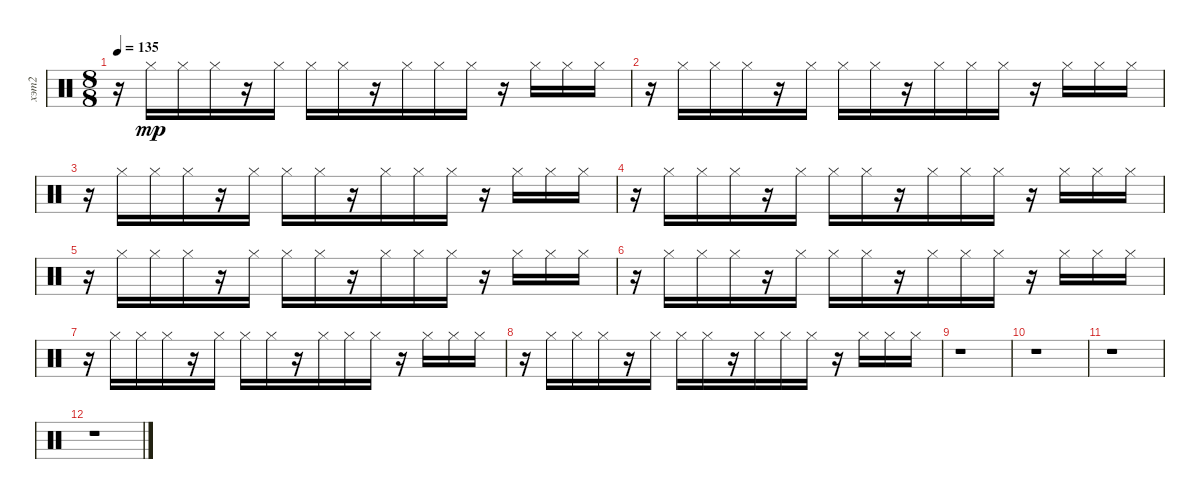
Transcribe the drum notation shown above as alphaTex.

\track ("хэт2" "хэт2") {instrument percussion}
\staff {score}
\articulation defaults
\ts (8 8)
\tempo 135
\clef neutral
\ks c
r.16{dy mp} "Hi-Hat (closed)".16 "Hi-Hat (closed)".16 "Hi-Hat (closed)".16 r.16 "Hi-Hat (closed)".16 "Hi-Hat (closed)".16 "Hi-Hat (closed)".16 r.16 "Hi-Hat (closed)".16 "Hi-Hat (closed)".16 "Hi-Hat (closed)".16 r.16 "Hi-Hat (closed)".16 "Hi-Hat (closed)".16 "Hi-Hat (closed)".16 |
r.16 "Hi-Hat (closed)".16 "Hi-Hat (closed)".16 "Hi-Hat (closed)".16 r.16 "Hi-Hat (closed)".16 "Hi-Hat (closed)".16 "Hi-Hat (closed)".16 r.16 "Hi-Hat (closed)".16 "Hi-Hat (closed)".16 "Hi-Hat (closed)".16 r.16 "Hi-Hat (closed)".16 "Hi-Hat (closed)".16 "Hi-Hat (closed)".16 |
r.16 "Hi-Hat (closed)".16 "Hi-Hat (closed)".16 "Hi-Hat (closed)".16 r.16 "Hi-Hat (closed)".16 "Hi-Hat (closed)".16 "Hi-Hat (closed)".16 r.16 "Hi-Hat (closed)".16 "Hi-Hat (closed)".16 "Hi-Hat (closed)".16 r.16 "Hi-Hat (closed)".16 "Hi-Hat (closed)".16 "Hi-Hat (closed)".16 |
r.16 "Hi-Hat (closed)".16 "Hi-Hat (closed)".16 "Hi-Hat (closed)".16 r.16 "Hi-Hat (closed)".16 "Hi-Hat (closed)".16 "Hi-Hat (closed)".16 r.16 "Hi-Hat (closed)".16 "Hi-Hat (closed)".16 "Hi-Hat (closed)".16 r.16 "Hi-Hat (closed)".16 "Hi-Hat (closed)".16 "Hi-Hat (closed)".16 |
r.16 "Hi-Hat (closed)".16 "Hi-Hat (closed)".16 "Hi-Hat (closed)".16 r.16 "Hi-Hat (closed)".16 "Hi-Hat (closed)".16 "Hi-Hat (closed)".16 r.16 "Hi-Hat (closed)".16 "Hi-Hat (closed)".16 "Hi-Hat (closed)".16 r.16 "Hi-Hat (closed)".16 "Hi-Hat (closed)".16 "Hi-Hat (closed)".16 |
r.16 "Hi-Hat (closed)".16 "Hi-Hat (closed)".16 "Hi-Hat (closed)".16 r.16 "Hi-Hat (closed)".16 "Hi-Hat (closed)".16 "Hi-Hat (closed)".16 r.16 "Hi-Hat (closed)".16 "Hi-Hat (closed)".16 "Hi-Hat (closed)".16 r.16 "Hi-Hat (closed)".16 "Hi-Hat (closed)".16 "Hi-Hat (closed)".16 |
r.16 "Hi-Hat (closed)".16 "Hi-Hat (closed)".16 "Hi-Hat (closed)".16 r.16 "Hi-Hat (closed)".16 "Hi-Hat (closed)".16 "Hi-Hat (closed)".16 r.16 "Hi-Hat (closed)".16 "Hi-Hat (closed)".16 "Hi-Hat (closed)".16 r.16 "Hi-Hat (closed)".16 "Hi-Hat (closed)".16 "Hi-Hat (closed)".16 |
r.16 "Hi-Hat (closed)".16 "Hi-Hat (closed)".16 "Hi-Hat (closed)".16 r.16 "Hi-Hat (closed)".16 "Hi-Hat (closed)".16 "Hi-Hat (closed)".16 r.16 "Hi-Hat (closed)".16 "Hi-Hat (closed)".16 "Hi-Hat (closed)".16 r.16 "Hi-Hat (closed)".16 "Hi-Hat (closed)".16 "Hi-Hat (closed)".16 |
r.1 |
r.1 |
r.1 |
r.1
